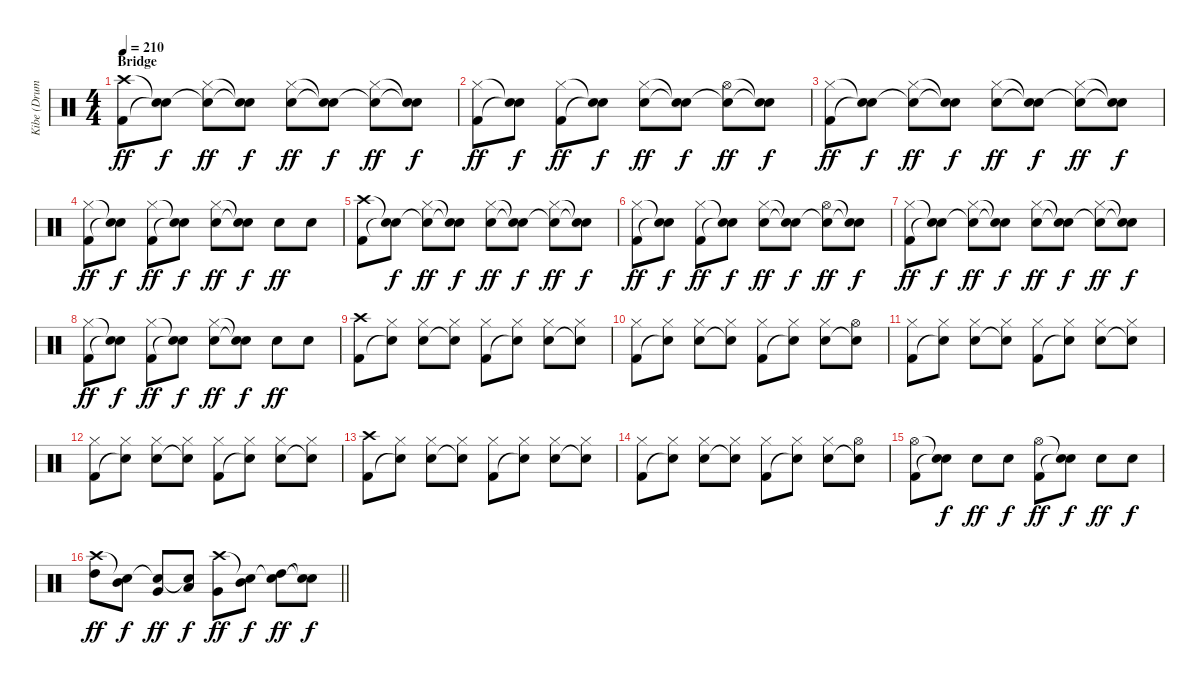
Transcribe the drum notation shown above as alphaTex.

\track ("Kibe (Drums)" "Kibe (Drum") {instrument percussion}
\staff {score}
\articulation defaults
\ts (4 4)
\section ("" "Bridge")
\tempo 210
\clef neutral
\ks c
("Crash high (hit)" "Kick (hit) 2").8{dy ff} ("Snare (hit)"{t} "Snare (hit)"{t}).8{dy f} ("Hi-Hat (closed)" "Snare (hit)"{t}).8{dy ff} ("Snare (hit)"{t} "Snare (hit)"{t}).8{dy f} ("Hi-Hat (closed)" "Snare (hit) 2").8{dy ff} ("Snare (hit)"{t} "Snare (hit)"{t}).8{dy f} ("Hi-Hat (closed)" "Snare (hit)"{t}).8{dy ff} ("Snare (hit)"{t} "Snare (hit)"{t}).8{dy f} |
("Hi-Hat (closed)" "Kick (hit) 2").8{dy ff} ("Snare (hit)"{t} "Snare (hit)"{t}).8{dy f} ("Hi-Hat (closed)" "Kick (hit) 2").8{dy ff} ("Snare (hit)"{t} "Snare (hit)"{t}).8{dy f} ("Hi-Hat (closed)" "Snare (hit) 2").8{dy ff} ("Snare (hit)"{t} "Snare (hit)"{t}).8{dy f} ("Hi-Hat (open)" "Snare (hit)"{t}).8{dy ff} ("Snare (hit)"{t} "Snare (hit)"{t}).8{dy f} |
("Hi-Hat (closed)" "Kick (hit) 2").8{dy ff} ("Snare (hit)"{t} "Snare (hit)"{t}).8{dy f} ("Hi-Hat (closed)" "Snare (hit)"{t}).8{dy ff} ("Snare (hit)"{t} "Snare (hit)"{t}).8{dy f} ("Hi-Hat (closed)" "Snare (hit) 2").8{dy ff} ("Snare (hit)"{t} "Snare (hit)"{t}).8{dy f} ("Hi-Hat (closed)" "Snare (hit)"{t}).8{dy ff} ("Snare (hit)"{t} "Snare (hit)"{t}).8{dy f} |
("Hi-Hat (closed)" "Kick (hit) 2").8{dy ff} ("Snare (hit)"{t} "Snare (hit)"{t}).8{dy f} ("Hi-Hat (closed)" "Kick (hit) 2").8{dy ff} ("Snare (hit)"{t} "Snare (hit)"{t}).8{dy f} ("Hi-Hat (closed)" "Snare (hit) 2").8{dy ff} ("Snare (hit)"{t} "Snare (hit)"{t}).8{dy f} "Snare (hit) 2".8{dy ff} "Snare (hit) 2".8 |
("Crash high (hit)" "Kick (hit) 2").8 ("Snare (hit)"{t} "Snare (hit)"{t}).8{dy f} ("Hi-Hat (closed)" "Snare (hit)"{t}).8{dy ff} ("Snare (hit)"{t} "Snare (hit)"{t}).8{dy f} ("Hi-Hat (closed)" "Snare (hit) 2").8{dy ff} ("Snare (hit)"{t} "Snare (hit)"{t}).8{dy f} ("Hi-Hat (closed)" "Snare (hit)"{t}).8{dy ff} ("Snare (hit)"{t} "Snare (hit)"{t}).8{dy f} |
("Hi-Hat (closed)" "Kick (hit) 2").8{dy ff} ("Snare (hit)"{t} "Snare (hit)"{t}).8{dy f} ("Hi-Hat (closed)" "Kick (hit) 2").8{dy ff} ("Snare (hit)"{t} "Snare (hit)"{t}).8{dy f} ("Hi-Hat (closed)" "Snare (hit) 2").8{dy ff} ("Snare (hit)"{t} "Snare (hit)"{t}).8{dy f} ("Hi-Hat (open)" "Snare (hit)"{t}).8{dy ff} ("Snare (hit)"{t} "Snare (hit)"{t}).8{dy f} |
("Hi-Hat (closed)" "Kick (hit) 2").8{dy ff} ("Snare (hit)"{t} "Snare (hit)"{t}).8{dy f} ("Hi-Hat (closed)" "Snare (hit)"{t}).8{dy ff} ("Snare (hit)"{t} "Snare (hit)"{t}).8{dy f} ("Hi-Hat (closed)" "Snare (hit) 2").8{dy ff} ("Snare (hit)"{t} "Snare (hit)"{t}).8{dy f} ("Hi-Hat (closed)" "Snare (hit)"{t}).8{dy ff} ("Snare (hit)"{t} "Snare (hit)"{t}).8{dy f} |
("Hi-Hat (closed)" "Kick (hit) 2").8{dy ff} ("Snare (hit)"{t} "Snare (hit)"{t}).8{dy f} ("Hi-Hat (closed)" "Kick (hit) 2").8{dy ff} ("Snare (hit)"{t} "Snare (hit)"{t}).8{dy f} ("Hi-Hat (closed)" "Snare (hit) 2").8{dy ff} ("Snare (hit)"{t} "Snare (hit)"{t}).8{dy f} "Snare (hit) 2".8{dy ff} "Snare (hit) 2".8 |
("Crash high (hit)" "Kick (hit) 2").8 ("Hi-Hat (closed)" "Snare (hit)"{t}).8 ("Hi-Hat (closed)" "Snare (hit) 2").8 ("Hi-Hat (closed)" "Snare (hit)"{t}).8 ("Hi-Hat (closed)" "Kick (hit) 2").8 ("Hi-Hat (closed)" "Snare (hit)"{t}).8 ("Hi-Hat (closed)" "Snare (hit) 2").8 ("Hi-Hat (closed)" "Snare (hit)"{t}).8 |
("Hi-Hat (closed)" "Kick (hit) 2").8 ("Hi-Hat (closed)" "Snare (hit)"{t}).8 ("Hi-Hat (closed)" "Snare (hit) 2").8 ("Hi-Hat (closed)" "Snare (hit)"{t}).8 ("Hi-Hat (closed)" "Kick (hit) 2").8 ("Hi-Hat (closed)" "Snare (hit)"{t}).8 ("Hi-Hat (closed)" "Snare (hit) 2").8 ("Hi-Hat (open)" "Snare (hit)"{t}).8 |
("Hi-Hat (closed)" "Kick (hit) 2").8 ("Hi-Hat (closed)" "Snare (hit)"{t}).8 ("Hi-Hat (closed)" "Snare (hit) 2").8 ("Hi-Hat (closed)" "Snare (hit)"{t}).8 ("Hi-Hat (closed)" "Kick (hit) 2").8 ("Hi-Hat (closed)" "Snare (hit)"{t}).8 ("Hi-Hat (closed)" "Snare (hit) 2").8 ("Hi-Hat (closed)" "Snare (hit)"{t}).8 |
("Hi-Hat (closed)" "Kick (hit) 2").8 ("Hi-Hat (closed)" "Snare (hit)"{t}).8 ("Hi-Hat (closed)" "Snare (hit) 2").8 ("Hi-Hat (closed)" "Snare (hit)"{t}).8 ("Hi-Hat (closed)" "Kick (hit) 2").8 ("Hi-Hat (closed)" "Snare (hit)"{t}).8 ("Hi-Hat (closed)" "Snare (hit) 2").8 ("Hi-Hat (closed)" "Snare (hit)"{t}).8 |
("Crash high (hit)" "Kick (hit) 2").8 ("Hi-Hat (closed)" "Snare (hit)"{t}).8 ("Hi-Hat (closed)" "Snare (hit) 2").8 ("Hi-Hat (closed)" "Snare (hit)"{t}).8 ("Hi-Hat (closed)" "Kick (hit) 2").8 ("Hi-Hat (closed)" "Snare (hit)"{t}).8 ("Hi-Hat (closed)" "Snare (hit) 2").8 ("Hi-Hat (closed)" "Snare (hit)"{t}).8 |
("Hi-Hat (closed)" "Kick (hit) 2").8 ("Hi-Hat (closed)" "Snare (hit)"{t}).8 ("Hi-Hat (closed)" "Snare (hit) 2").8 ("Hi-Hat (closed)" "Snare (hit)"{t}).8 ("Hi-Hat (closed)" "Kick (hit) 2").8 ("Hi-Hat (closed)" "Snare (hit)"{t}).8 ("Hi-Hat (closed)" "Snare (hit) 2").8 ("Hi-Hat (open)" "Snare (hit)"{t}).8 |
("Hi-Hat (open)" "Kick (hit) 2").8 ("Snare (hit)"{t} "Snare (hit)"{t}).8{dy f} "Snare (hit) 2".8{dy ff} "Snare (hit) 2".8{dy f} ("Hi-Hat (open)" "Kick (hit) 2").8{dy ff} ("Snare (hit)"{t} "Snare (hit)"{t}).8{dy f} "Snare (hit) 2".8{dy ff} "Snare (hit) 2".8{dy f} |
\barLineRight lightlight
("Crash high (hit)" "High Tom (hit)").8{dy ff} ("Snare (hit)"{t} "Mid Tom (hit)").8{dy f} ("Snare (hit)"{t} "Very Low Tom (hit)").8{dy ff} ("Snare (hit)"{t} "Low Floor Tom (hit)").8{dy f} ("Crash high (hit)" "Very Low Tom (hit)").8{dy ff} ("Snare (hit)"{t} "Mid Tom (hit)").8{dy f} ("Snare (hit)"{t} "High Tom (hit)").8{dy ff} ("Snare (hit)"{t} "Snare (hit)"{t}).8{dy f}
